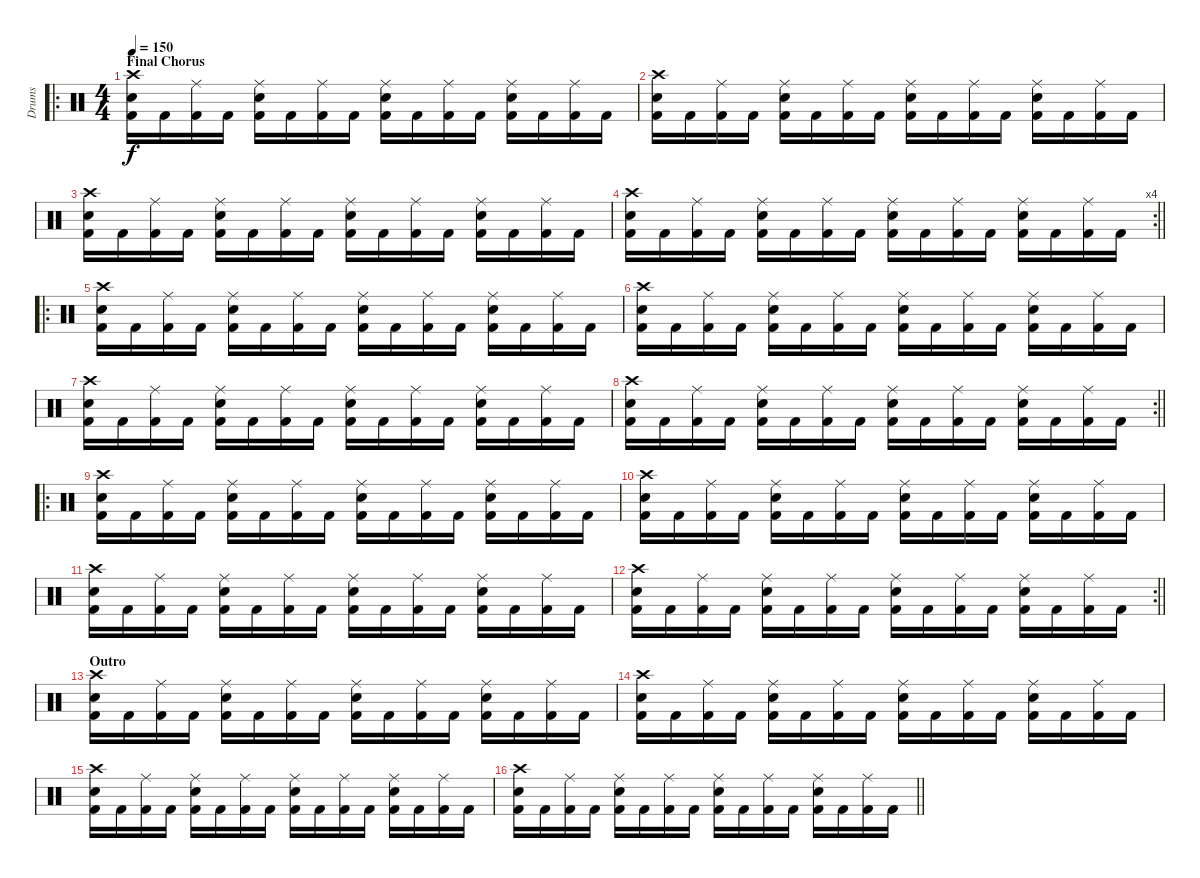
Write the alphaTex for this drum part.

\track ("Drums" "Drums") {instrument percussion}
\staff {score}
\articulation defaults
\ro
\ts (4 4)
\section ("" "Final Chorus")
\tempo 150
\clef neutral
\ks c
("Kick (hit) 2" "Snare (hit) 2" "Crash high (hit)").16{dy f} "Kick (hit) 2".16 ("Kick (hit) 2" "Ride (middle)").16 "Kick (hit) 2".16 ("Kick (hit) 2" "Snare (hit) 2" "Ride (middle)").16 "Kick (hit) 2".16 ("Kick (hit) 2" "Ride (middle)").16 "Kick (hit) 2".16 ("Kick (hit) 2" "Snare (hit) 2" "Ride (middle)").16 "Kick (hit) 2".16 ("Kick (hit) 2" "Ride (middle)").16 "Kick (hit) 2".16 ("Kick (hit) 2" "Snare (hit) 2" "Ride (middle)").16 "Kick (hit) 2".16 ("Kick (hit) 2" "Ride (middle)").16 "Kick (hit) 2".16 |
("Kick (hit) 2" "Snare (hit) 2" "Crash high (hit)").16 "Kick (hit) 2".16 ("Kick (hit) 2" "Ride (middle)").16 "Kick (hit) 2".16 ("Kick (hit) 2" "Snare (hit) 2" "Ride (middle)").16 "Kick (hit) 2".16 ("Kick (hit) 2" "Ride (middle)").16 "Kick (hit) 2".16 ("Kick (hit) 2" "Snare (hit) 2" "Ride (middle)").16 "Kick (hit) 2".16 ("Kick (hit) 2" "Ride (middle)").16 "Kick (hit) 2".16 ("Kick (hit) 2" "Snare (hit) 2" "Ride (middle)").16 "Kick (hit) 2".16 ("Kick (hit) 2" "Ride (middle)").16 "Kick (hit) 2".16 |
("Kick (hit) 2" "Snare (hit) 2" "Crash high (hit)").16 "Kick (hit) 2".16 ("Kick (hit) 2" "Ride (middle)").16 "Kick (hit) 2".16 ("Kick (hit) 2" "Snare (hit) 2" "Ride (middle)").16 "Kick (hit) 2".16 ("Kick (hit) 2" "Ride (middle)").16 "Kick (hit) 2".16 ("Kick (hit) 2" "Snare (hit) 2" "Ride (middle)").16 "Kick (hit) 2".16 ("Kick (hit) 2" "Ride (middle)").16 "Kick (hit) 2".16 ("Kick (hit) 2" "Snare (hit) 2" "Ride (middle)").16 "Kick (hit) 2".16 ("Kick (hit) 2" "Ride (middle)").16 "Kick (hit) 2".16 |
\rc 4
\barLineRight lightlight
("Kick (hit) 2" "Snare (hit) 2" "Crash high (hit)").16 "Kick (hit) 2".16 ("Kick (hit) 2" "Ride (middle)").16 "Kick (hit) 2".16 ("Kick (hit) 2" "Snare (hit) 2" "Ride (middle)").16 "Kick (hit) 2".16 ("Kick (hit) 2" "Ride (middle)").16 "Kick (hit) 2".16 ("Kick (hit) 2" "Snare (hit) 2" "Ride (middle)").16 "Kick (hit) 2".16 ("Kick (hit) 2" "Ride (middle)").16 "Kick (hit) 2".16 ("Kick (hit) 2" "Snare (hit) 2" "Ride (middle)").16 "Kick (hit) 2".16 ("Kick (hit) 2" "Ride (middle)").16 "Kick (hit) 2".16 |
\ro
("Kick (hit) 2" "Snare (hit) 2" "Crash high (hit)").16 "Kick (hit) 2".16 ("Kick (hit) 2" "Ride (middle)").16 "Kick (hit) 2".16 ("Kick (hit) 2" "Snare (hit) 2" "Ride (middle)").16 "Kick (hit) 2".16 ("Kick (hit) 2" "Ride (middle)").16 "Kick (hit) 2".16 ("Kick (hit) 2" "Snare (hit) 2" "Ride (middle)").16 "Kick (hit) 2".16 ("Kick (hit) 2" "Ride (middle)").16 "Kick (hit) 2".16 ("Kick (hit) 2" "Snare (hit) 2" "Ride (middle)").16 "Kick (hit) 2".16 ("Kick (hit) 2" "Ride (middle)").16 "Kick (hit) 2".16 |
("Kick (hit) 2" "Snare (hit) 2" "Crash high (hit)").16 "Kick (hit) 2".16 ("Kick (hit) 2" "Ride (middle)").16 "Kick (hit) 2".16 ("Kick (hit) 2" "Snare (hit) 2" "Ride (middle)").16 "Kick (hit) 2".16 ("Kick (hit) 2" "Ride (middle)").16 "Kick (hit) 2".16 ("Kick (hit) 2" "Snare (hit) 2" "Ride (middle)").16 "Kick (hit) 2".16 ("Kick (hit) 2" "Ride (middle)").16 "Kick (hit) 2".16 ("Kick (hit) 2" "Snare (hit) 2" "Ride (middle)").16 "Kick (hit) 2".16 ("Kick (hit) 2" "Ride (middle)").16 "Kick (hit) 2".16 |
("Kick (hit) 2" "Snare (hit) 2" "Crash high (hit)").16 "Kick (hit) 2".16 ("Kick (hit) 2" "Ride (middle)").16 "Kick (hit) 2".16 ("Kick (hit) 2" "Snare (hit) 2" "Ride (middle)").16 "Kick (hit) 2".16 ("Kick (hit) 2" "Ride (middle)").16 "Kick (hit) 2".16 ("Kick (hit) 2" "Snare (hit) 2" "Ride (middle)").16 "Kick (hit) 2".16 ("Kick (hit) 2" "Ride (middle)").16 "Kick (hit) 2".16 ("Kick (hit) 2" "Snare (hit) 2" "Ride (middle)").16 "Kick (hit) 2".16 ("Kick (hit) 2" "Ride (middle)").16 "Kick (hit) 2".16 |
\rc 2
\barLineRight lightlight
("Kick (hit) 2" "Snare (hit) 2" "Crash high (hit)").16 "Kick (hit) 2".16 ("Kick (hit) 2" "Ride (middle)").16 "Kick (hit) 2".16 ("Kick (hit) 2" "Snare (hit) 2" "Ride (middle)").16 "Kick (hit) 2".16 ("Kick (hit) 2" "Ride (middle)").16 "Kick (hit) 2".16 ("Kick (hit) 2" "Snare (hit) 2" "Ride (middle)").16 "Kick (hit) 2".16 ("Kick (hit) 2" "Ride (middle)").16 "Kick (hit) 2".16 ("Kick (hit) 2" "Snare (hit) 2" "Ride (middle)").16 "Kick (hit) 2".16 ("Kick (hit) 2" "Ride (middle)").16 "Kick (hit) 2".16 |
\ro
("Kick (hit) 2" "Snare (hit) 2" "Crash high (hit)").16 "Kick (hit) 2".16 ("Kick (hit) 2" "Ride (middle)").16 "Kick (hit) 2".16 ("Kick (hit) 2" "Snare (hit) 2" "Ride (middle)").16 "Kick (hit) 2".16 ("Kick (hit) 2" "Ride (middle)").16 "Kick (hit) 2".16 ("Kick (hit) 2" "Snare (hit) 2" "Ride (middle)").16 "Kick (hit) 2".16 ("Kick (hit) 2" "Ride (middle)").16 "Kick (hit) 2".16 ("Kick (hit) 2" "Snare (hit) 2" "Ride (middle)").16 "Kick (hit) 2".16 ("Kick (hit) 2" "Ride (middle)").16 "Kick (hit) 2".16 |
("Kick (hit) 2" "Snare (hit) 2" "Crash high (hit)").16 "Kick (hit) 2".16 ("Kick (hit) 2" "Ride (middle)").16 "Kick (hit) 2".16 ("Kick (hit) 2" "Snare (hit) 2" "Ride (middle)").16 "Kick (hit) 2".16 ("Kick (hit) 2" "Ride (middle)").16 "Kick (hit) 2".16 ("Kick (hit) 2" "Snare (hit) 2" "Ride (middle)").16 "Kick (hit) 2".16 ("Kick (hit) 2" "Ride (middle)").16 "Kick (hit) 2".16 ("Kick (hit) 2" "Snare (hit) 2" "Ride (middle)").16 "Kick (hit) 2".16 ("Kick (hit) 2" "Ride (middle)").16 "Kick (hit) 2".16 |
("Kick (hit) 2" "Snare (hit) 2" "Crash high (hit)").16 "Kick (hit) 2".16 ("Kick (hit) 2" "Ride (middle)").16 "Kick (hit) 2".16 ("Kick (hit) 2" "Snare (hit) 2" "Ride (middle)").16 "Kick (hit) 2".16 ("Kick (hit) 2" "Ride (middle)").16 "Kick (hit) 2".16 ("Kick (hit) 2" "Snare (hit) 2" "Ride (middle)").16 "Kick (hit) 2".16 ("Kick (hit) 2" "Ride (middle)").16 "Kick (hit) 2".16 ("Kick (hit) 2" "Snare (hit) 2" "Ride (middle)").16 "Kick (hit) 2".16 ("Kick (hit) 2" "Ride (middle)").16 "Kick (hit) 2".16 |
\rc 2
\barLineRight lightlight
("Kick (hit) 2" "Snare (hit) 2" "Crash high (hit)").16 "Kick (hit) 2".16 ("Kick (hit) 2" "Ride (middle)").16 "Kick (hit) 2".16 ("Kick (hit) 2" "Snare (hit) 2" "Ride (middle)").16 "Kick (hit) 2".16 ("Kick (hit) 2" "Ride (middle)").16 "Kick (hit) 2".16 ("Kick (hit) 2" "Snare (hit) 2" "Ride (middle)").16 "Kick (hit) 2".16 ("Kick (hit) 2" "Ride (middle)").16 "Kick (hit) 2".16 ("Kick (hit) 2" "Snare (hit) 2" "Ride (middle)").16 "Kick (hit) 2".16 ("Kick (hit) 2" "Ride (middle)").16 "Kick (hit) 2".16 |
\section ("" "Outro")
("Kick (hit) 2" "Snare (hit) 2" "Crash high (hit)").16 "Kick (hit) 2".16 ("Kick (hit) 2" "Ride (middle)").16 "Kick (hit) 2".16 ("Kick (hit) 2" "Snare (hit) 2" "Ride (middle)").16 "Kick (hit) 2".16 ("Kick (hit) 2" "Ride (middle)").16 "Kick (hit) 2".16 ("Kick (hit) 2" "Snare (hit) 2" "Ride (middle)").16 "Kick (hit) 2".16 ("Kick (hit) 2" "Ride (middle)").16 "Kick (hit) 2".16 ("Kick (hit) 2" "Snare (hit) 2" "Ride (middle)").16 "Kick (hit) 2".16 ("Kick (hit) 2" "Ride (middle)").16 "Kick (hit) 2".16 |
("Kick (hit) 2" "Snare (hit) 2" "Crash high (hit)").16 "Kick (hit) 2".16 ("Kick (hit) 2" "Ride (middle)").16 "Kick (hit) 2".16 ("Kick (hit) 2" "Snare (hit) 2" "Ride (middle)").16 "Kick (hit) 2".16 ("Kick (hit) 2" "Ride (middle)").16 "Kick (hit) 2".16 ("Kick (hit) 2" "Snare (hit) 2" "Ride (middle)").16 "Kick (hit) 2".16 ("Kick (hit) 2" "Ride (middle)").16 "Kick (hit) 2".16 ("Kick (hit) 2" "Snare (hit) 2" "Ride (middle)").16 "Kick (hit) 2".16 ("Kick (hit) 2" "Ride (middle)").16 "Kick (hit) 2".16 |
("Kick (hit) 2" "Snare (hit) 2" "Crash high (hit)").16 "Kick (hit) 2".16 ("Kick (hit) 2" "Ride (middle)").16 "Kick (hit) 2".16 ("Kick (hit) 2" "Snare (hit) 2" "Ride (middle)").16 "Kick (hit) 2".16 ("Kick (hit) 2" "Ride (middle)").16 "Kick (hit) 2".16 ("Kick (hit) 2" "Snare (hit) 2" "Ride (middle)").16 "Kick (hit) 2".16 ("Kick (hit) 2" "Ride (middle)").16 "Kick (hit) 2".16 ("Kick (hit) 2" "Snare (hit) 2" "Ride (middle)").16 "Kick (hit) 2".16 ("Kick (hit) 2" "Ride (middle)").16 "Kick (hit) 2".16 |
\barLineRight lightlight
("Kick (hit) 2" "Snare (hit) 2" "Crash high (hit)").16 "Kick (hit) 2".16 ("Kick (hit) 2" "Ride (middle)").16 "Kick (hit) 2".16 ("Kick (hit) 2" "Snare (hit) 2" "Ride (middle)").16 "Kick (hit) 2".16 ("Kick (hit) 2" "Ride (middle)").16 "Kick (hit) 2".16 ("Kick (hit) 2" "Snare (hit) 2" "Ride (middle)").16 "Kick (hit) 2".16 ("Kick (hit) 2" "Ride (middle)").16 "Kick (hit) 2".16 ("Kick (hit) 2" "Snare (hit) 2" "Ride (middle)").16 "Kick (hit) 2".16 ("Kick (hit) 2" "Ride (middle)").16 "Kick (hit) 2".16
